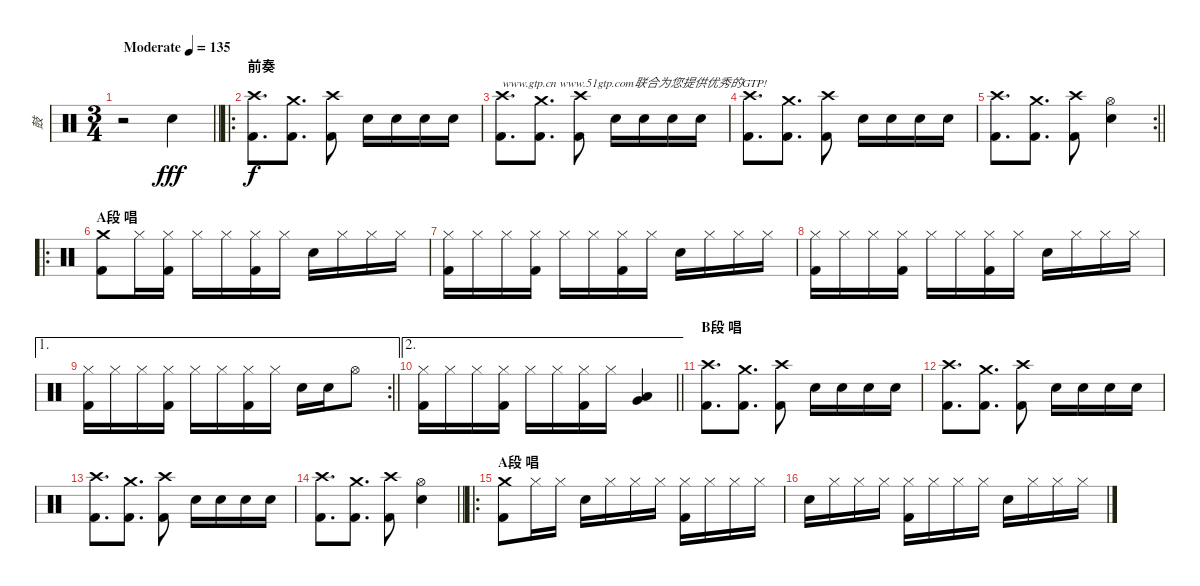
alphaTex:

\track ("鼓" "鼓") {instrument percussion}
\staff {score}
\articulation defaults
\ts (3 4)
\tempo (135 "Moderate")
\clef neutral
\barLineRight lightlight
\ks c
r.2{dy fff} "Electric Snare (hit)".4 |
\ro
\section ("" "前奏")
("Crash high (hit)" "Kick (hit) 2").8{d dy f} ("Crash medium (hit)" "Kick (hit) 2").8{d} ("Crash high (hit)" "Kick (hit) 2").8 "Electric Snare (hit)".16 "Electric Snare (hit)".16 "Electric Snare (hit)".16 "Electric Snare (hit)".16 |
("Crash high (hit)" "Kick (hit) 2").8{d txt "www.gtp.cn www.51gtp.com联合为您提供优秀的GTP!"} ("Crash medium (hit)" "Kick (hit) 2").8{d} ("Crash high (hit)" "Kick (hit) 2").8 "Electric Snare (hit)".16 "Electric Snare (hit)".16 "Electric Snare (hit)".16 "Electric Snare (hit)".16 |
("Crash high (hit)" "Kick (hit) 2").8{d} ("Crash medium (hit)" "Kick (hit) 2").8{d} ("Crash high (hit)" "Kick (hit) 2").8 "Electric Snare (hit)".16 "Electric Snare (hit)".16 "Electric Snare (hit)".16 "Electric Snare (hit)".16 |
\rc 2
\barLineRight lightlight
("Crash high (hit)" "Kick (hit) 2").8{d} ("Crash medium (hit)" "Kick (hit) 2").8{d} ("Crash high (hit)" "Kick (hit) 2").8 ("Hi-Hat (open)" "Electric Snare (hit)").4 |
\ro
\section ("" "A段 唱")
("Crash medium (hit)" "Kick (hit) 2").8 "Hi-Hat (closed)".16 ("Hi-Hat (closed)" "Kick (hit) 2").16 "Hi-Hat (closed)".16 "Hi-Hat (closed)".16 ("Hi-Hat (closed)" "Kick (hit) 2").16 "Hi-Hat (closed)".16 "Electric Snare (hit)".16 "Hi-Hat (closed)".16 "Hi-Hat (closed)".16 "Hi-Hat (closed)".16 |
("Hi-Hat (closed)" "Kick (hit) 2").16 "Hi-Hat (closed)".16 "Hi-Hat (closed)".16 ("Hi-Hat (closed)" "Kick (hit) 2").16 "Hi-Hat (closed)".16 "Hi-Hat (closed)".16 ("Hi-Hat (closed)" "Kick (hit) 2").16 "Hi-Hat (closed)".16 "Electric Snare (hit)".16 "Hi-Hat (closed)".16 "Hi-Hat (closed)".16 "Hi-Hat (closed)".16 |
("Hi-Hat (closed)" "Kick (hit) 2").16 "Hi-Hat (closed)".16 "Hi-Hat (closed)".16 ("Hi-Hat (closed)" "Kick (hit) 2").16 "Hi-Hat (closed)".16 "Hi-Hat (closed)".16 ("Hi-Hat (closed)" "Kick (hit) 2").16 "Hi-Hat (closed)".16 "Electric Snare (hit)".16 "Hi-Hat (closed)".16 "Hi-Hat (closed)".16 "Hi-Hat (closed)".16 |
\ae 1
\rc 2
\barLineRight lightlight
("Hi-Hat (closed)" "Kick (hit) 2").16 "Hi-Hat (closed)".16 "Hi-Hat (closed)".16 ("Hi-Hat (closed)" "Kick (hit) 2").16 "Hi-Hat (closed)".16 "Hi-Hat (closed)".16 ("Hi-Hat (closed)" "Kick (hit) 2").16 "Hi-Hat (closed)".16 "Electric Snare (hit)".16 "Electric Snare (hit)".16 "Hi-Hat (open)".8 |
\ae 2
\barLineRight lightlight
("Hi-Hat (closed)" "Kick (hit) 2").16 "Hi-Hat (closed)".16 "Hi-Hat (closed)".16 ("Hi-Hat (closed)" "Kick (hit) 2").16 "Hi-Hat (closed)".16 "Hi-Hat (closed)".16 ("Hi-Hat (closed)" "Kick (hit) 2").16 "Hi-Hat (closed)".16 ("Low Tom (hit)" "Very Low Tom (hit)").4 |
\section ("" "B段 唱")
("Crash high (hit)" "Kick (hit) 2").8{d} ("Crash medium (hit)" "Kick (hit) 2").8{d} ("Crash high (hit)" "Kick (hit) 2").8 "Electric Snare (hit)".16 "Electric Snare (hit)".16 "Electric Snare (hit)".16 "Electric Snare (hit)".16 |
("Crash high (hit)" "Kick (hit) 2").8{d} ("Crash medium (hit)" "Kick (hit) 2").8{d} ("Crash high (hit)" "Kick (hit) 2").8 "Electric Snare (hit)".16 "Electric Snare (hit)".16 "Electric Snare (hit)".16 "Electric Snare (hit)".16 |
("Crash high (hit)" "Kick (hit) 2").8{d} ("Crash medium (hit)" "Kick (hit) 2").8{d} ("Crash high (hit)" "Kick (hit) 2").8 "Electric Snare (hit)".16 "Electric Snare (hit)".16 "Electric Snare (hit)".16 "Electric Snare (hit)".16 |
\barLineRight lightlight
("Crash high (hit)" "Kick (hit) 2").8{d} ("Crash medium (hit)" "Kick (hit) 2").8{d} ("Crash high (hit)" "Kick (hit) 2").8 ("Hi-Hat (open)" "Electric Snare (hit)").4 |
\ro
\section ("" "A段 唱")
("Crash medium (hit)" "Kick (hit) 2").8 "Hi-Hat (closed)".16 "Hi-Hat (closed)".16 "Electric Snare (hit)".16 "Hi-Hat (closed)".16 "Hi-Hat (closed)".16 "Hi-Hat (closed)".16 ("Hi-Hat (closed)" "Kick (hit) 2").16 "Hi-Hat (closed)".16 "Hi-Hat (closed)".16 "Hi-Hat (closed)".16 |
"Electric Snare (hit)".16 "Hi-Hat (closed)".16 "Hi-Hat (closed)".16 "Hi-Hat (closed)".16 ("Hi-Hat (closed)" "Kick (hit) 2").16 "Hi-Hat (closed)".16 "Hi-Hat (closed)".16 "Hi-Hat (closed)".16 "Electric Snare (hit)".16 "Hi-Hat (closed)".16 "Hi-Hat (closed)".16 "Hi-Hat (closed)".16
